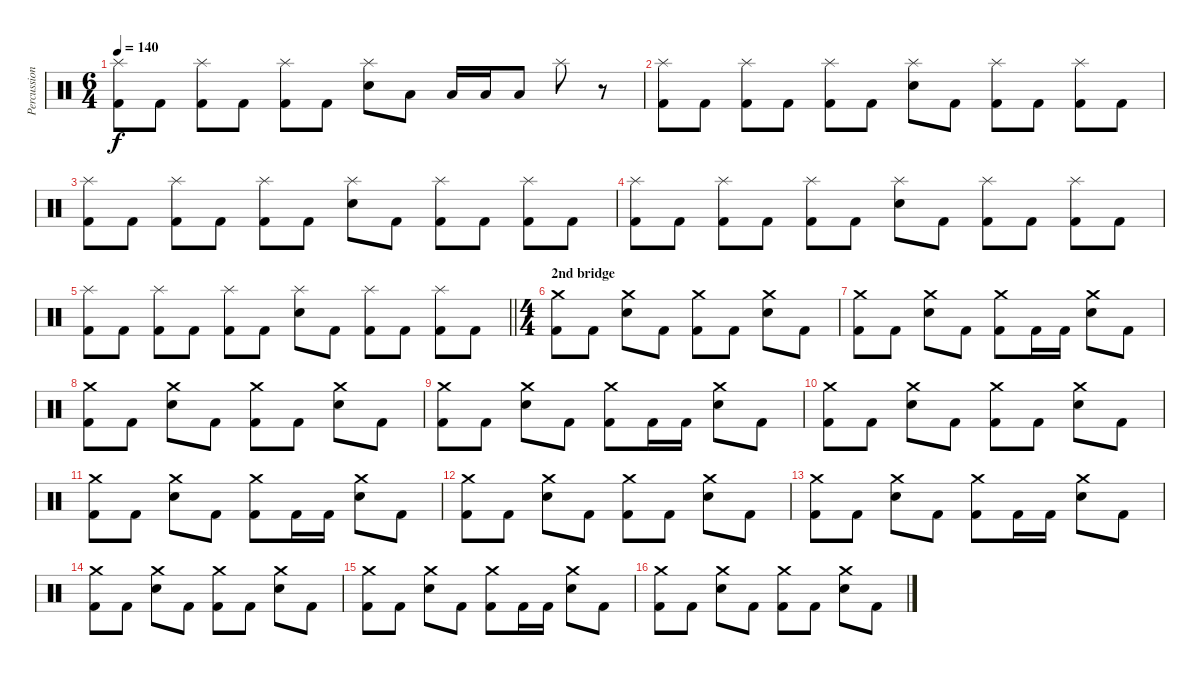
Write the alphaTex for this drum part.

\track ("Percussion" "Percussion") {instrument percussion}
\staff {score}
\articulation defaults
\ts (6 4)
\tempo 140
\clef neutral
\ks c
("Splash (hit)" "Kick (hit) 2").8{dy f} "Kick (hit) 2".8 ("Splash (hit)" "Kick (hit) 2").8 "Kick (hit) 2".8 ("Splash (hit)" "Kick (hit) 2").8 "Kick (hit) 2".8 ("Splash (hit)" "Electric Snare (hit)").8 "Low Tom (hit)".8 "Low Tom (hit)".16 "Low Tom (hit)".16 "Low Tom (hit)".8 "Splash (hit)".8 r.8 |
("Splash (hit)" "Kick (hit) 2").8 "Kick (hit) 2".8 ("Splash (hit)" "Kick (hit) 2").8 "Kick (hit) 2".8 ("Splash (hit)" "Kick (hit) 2").8 "Kick (hit) 2".8 ("Splash (hit)" "Electric Snare (hit)").8 "Kick (hit) 2".8 ("Splash (hit)" "Kick (hit) 2").8 "Kick (hit) 2".8 ("Splash (hit)" "Kick (hit) 2").8 "Kick (hit) 2".8 |
("Splash (hit)" "Kick (hit) 2").8 "Kick (hit) 2".8 ("Splash (hit)" "Kick (hit) 2").8 "Kick (hit) 2".8 ("Splash (hit)" "Kick (hit) 2").8 "Kick (hit) 2".8 ("Splash (hit)" "Electric Snare (hit)").8 "Kick (hit) 2".8 ("Splash (hit)" "Kick (hit) 2").8 "Kick (hit) 2".8 ("Splash (hit)" "Kick (hit) 2").8 "Kick (hit) 2".8 |
("Splash (hit)" "Kick (hit) 2").8 "Kick (hit) 2".8 ("Splash (hit)" "Kick (hit) 2").8 "Kick (hit) 2".8 ("Splash (hit)" "Kick (hit) 2").8 "Kick (hit) 2".8 ("Splash (hit)" "Electric Snare (hit)").8 "Kick (hit) 2".8 ("Splash (hit)" "Kick (hit) 2").8 "Kick (hit) 2".8 ("Splash (hit)" "Kick (hit) 2").8 "Kick (hit) 2".8 |
\barLineRight lightlight
("Splash (hit)" "Kick (hit) 2").8 "Kick (hit) 2".8 ("Splash (hit)" "Kick (hit) 2").8 "Kick (hit) 2".8 ("Splash (hit)" "Kick (hit) 2").8 "Kick (hit) 2".8 ("Splash (hit)" "Electric Snare (hit)").8 "Kick (hit) 2".8 ("Splash (hit)" "Kick (hit) 2").8 "Kick (hit) 2".8 ("Splash (hit)" "Kick (hit) 2").8 "Kick (hit) 2".8 |
\ts (4 4)
\section ("" "2nd bridge")
("Crash medium (hit)" "Kick (hit) 2").8 "Kick (hit) 2".8 ("Crash medium (hit)" "Electric Snare (hit)").8 "Kick (hit) 2".8 ("Crash medium (hit)" "Kick (hit) 2").8 "Kick (hit) 2".8 ("Crash medium (hit)" "Electric Snare (hit)").8 "Kick (hit) 2".8 |
("Crash medium (hit)" "Kick (hit) 2").8 "Kick (hit) 2".8 ("Crash medium (hit)" "Electric Snare (hit)").8 "Kick (hit) 2".8 ("Crash medium (hit)" "Kick (hit) 2").8 "Kick (hit) 2".16 "Kick (hit) 2".16 ("Crash medium (hit)" "Electric Snare (hit)").8 "Kick (hit) 2".8 |
("Crash medium (hit)" "Kick (hit) 2").8 "Kick (hit) 2".8 ("Crash medium (hit)" "Electric Snare (hit)").8 "Kick (hit) 2".8 ("Crash medium (hit)" "Kick (hit) 2").8 "Kick (hit) 2".8 ("Crash medium (hit)" "Electric Snare (hit)").8 "Kick (hit) 2".8 |
("Crash medium (hit)" "Kick (hit) 2").8 "Kick (hit) 2".8 ("Crash medium (hit)" "Electric Snare (hit)").8 "Kick (hit) 2".8 ("Crash medium (hit)" "Kick (hit) 2").8 "Kick (hit) 2".16 "Kick (hit) 2".16 ("Crash medium (hit)" "Electric Snare (hit)").8 "Kick (hit) 2".8 |
("Crash medium (hit)" "Kick (hit) 2").8 "Kick (hit) 2".8 ("Crash medium (hit)" "Electric Snare (hit)").8 "Kick (hit) 2".8 ("Crash medium (hit)" "Kick (hit) 2").8 "Kick (hit) 2".8 ("Crash medium (hit)" "Electric Snare (hit)").8 "Kick (hit) 2".8 |
("Crash medium (hit)" "Kick (hit) 2").8 "Kick (hit) 2".8 ("Crash medium (hit)" "Electric Snare (hit)").8 "Kick (hit) 2".8 ("Crash medium (hit)" "Kick (hit) 2").8 "Kick (hit) 2".16 "Kick (hit) 2".16 ("Crash medium (hit)" "Electric Snare (hit)").8 "Kick (hit) 2".8 |
("Crash medium (hit)" "Kick (hit) 2").8 "Kick (hit) 2".8 ("Crash medium (hit)" "Electric Snare (hit)").8 "Kick (hit) 2".8 ("Crash medium (hit)" "Kick (hit) 2").8 "Kick (hit) 2".8 ("Crash medium (hit)" "Electric Snare (hit)").8 "Kick (hit) 2".8 |
("Crash medium (hit)" "Kick (hit) 2").8 "Kick (hit) 2".8 ("Crash medium (hit)" "Electric Snare (hit)").8 "Kick (hit) 2".8 ("Crash medium (hit)" "Kick (hit) 2").8 "Kick (hit) 2".16 "Kick (hit) 2".16 ("Crash medium (hit)" "Electric Snare (hit)").8 "Kick (hit) 2".8 |
("Crash medium (hit)" "Kick (hit) 2").8 "Kick (hit) 2".8 ("Crash medium (hit)" "Electric Snare (hit)").8 "Kick (hit) 2".8 ("Crash medium (hit)" "Kick (hit) 2").8 "Kick (hit) 2".8 ("Crash medium (hit)" "Electric Snare (hit)").8 "Kick (hit) 2".8 |
("Crash medium (hit)" "Kick (hit) 2").8 "Kick (hit) 2".8 ("Crash medium (hit)" "Electric Snare (hit)").8 "Kick (hit) 2".8 ("Crash medium (hit)" "Kick (hit) 2").8 "Kick (hit) 2".16 "Kick (hit) 2".16 ("Crash medium (hit)" "Electric Snare (hit)").8 "Kick (hit) 2".8 |
("Crash medium (hit)" "Kick (hit) 2").8 "Kick (hit) 2".8 ("Crash medium (hit)" "Electric Snare (hit)").8 "Kick (hit) 2".8 ("Crash medium (hit)" "Kick (hit) 2").8 "Kick (hit) 2".8 ("Crash medium (hit)" "Electric Snare (hit)").8 "Kick (hit) 2".8
